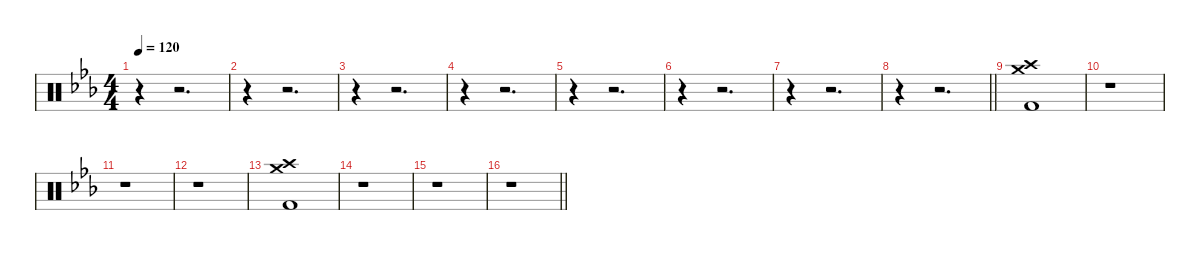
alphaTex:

\defaultSystemsLayout 4
\hideDynamics
\bracketExtendMode nobrackets
\singleTrackTrackNamePolicy hidden
\multiTrackTrackNamePolicy hidden
\firstSystemTrackNameMode fullname
\otherSystemsTrackNameOrientation horizontal
\track ("Drums" "drm.") {instrument percussion}
\staff {score}
\articulation defaults
\ts (4 4)
\beaming (8 2 2 2 2)
\tempo 120
\clef neutral
\ks cminor
r.4{dy f beam Down} r.2{d beam Down} |
r.4{beam Down} r.2{d beam Down} |
r.4{beam Down} r.2{d beam Down} |
r.4{beam Down} r.2{d beam Down} |
r.4{beam Down} r.2{d beam Down} |
r.4{beam Down} r.2{d beam Down} |
r.4{beam Down} r.2{d beam Down} |
\barLineRight lightlight
r.4{beam Down} r.2{d beam Down} |
("Crash high (hit)"{acc forcenatural} "Crash medium (hit)"{acc forcenatural} "Kick (hit) 2"{acc forcenatural}).1{beam Down} |
r.1{beam Down} |
r.1{beam Down} |
r.1{beam Down} |
("Crash high (hit)"{acc forcenatural} "Crash medium (hit)"{acc forcenatural} "Kick (hit) 2"{acc forcenatural}).1{beam Down} |
r.1{beam Down} |
r.1{beam Down} |
\barLineRight lightlight
r.1{beam Down}
